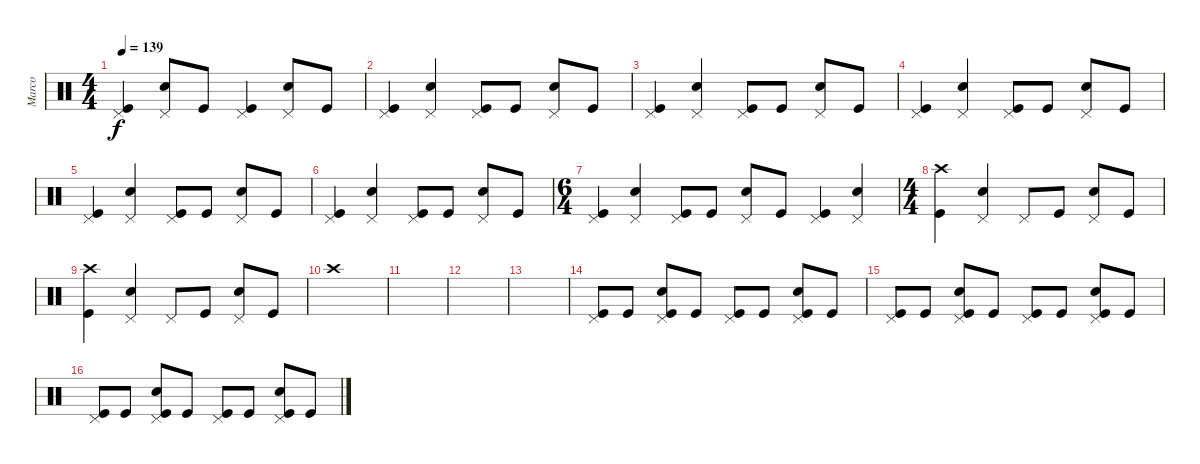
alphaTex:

\track ("Marco" "Marco") {instrument percussion}
\staff {score}
\articulation defaults
\ts (4 4)
\tempo 139
\clef neutral
\ks c
("Pedal Hi-Hat (hit)" "Kick (hit)").4{dy f} ("Pedal Hi-Hat (hit)" "Snare (hit) 2").8 "Kick (hit)".8 ("Pedal Hi-Hat (hit)" "Kick (hit)").4 ("Pedal Hi-Hat (hit)" "Snare (hit) 2").8 "Kick (hit)".8 |
("Pedal Hi-Hat (hit)" "Kick (hit)").4 ("Pedal Hi-Hat (hit)" "Snare (hit) 2").4 ("Pedal Hi-Hat (hit)" "Kick (hit)").8 "Kick (hit)".8 ("Pedal Hi-Hat (hit)" "Snare (hit) 2").8 "Kick (hit)".8 |
("Pedal Hi-Hat (hit)" "Kick (hit)").4 ("Pedal Hi-Hat (hit)" "Snare (hit) 2").4 ("Pedal Hi-Hat (hit)" "Kick (hit)").8 "Kick (hit)".8 ("Pedal Hi-Hat (hit)" "Snare (hit) 2").8 "Kick (hit)".8 |
("Pedal Hi-Hat (hit)" "Kick (hit)").4 ("Pedal Hi-Hat (hit)" "Snare (hit) 2").4 ("Pedal Hi-Hat (hit)" "Kick (hit)").8 "Kick (hit)".8 ("Pedal Hi-Hat (hit)" "Snare (hit) 2").8 "Kick (hit)".8 |
("Pedal Hi-Hat (hit)" "Kick (hit)").4 ("Pedal Hi-Hat (hit)" "Snare (hit) 2").4 ("Pedal Hi-Hat (hit)" "Kick (hit)").8 "Kick (hit)".8 ("Pedal Hi-Hat (hit)" "Snare (hit) 2").8 "Kick (hit)".8 |
("Pedal Hi-Hat (hit)" "Kick (hit)").4 ("Pedal Hi-Hat (hit)" "Snare (hit) 2").4 ("Pedal Hi-Hat (hit)" "Kick (hit)").8 "Kick (hit)".8 ("Pedal Hi-Hat (hit)" "Snare (hit) 2").8 "Kick (hit)".8 |
\ts (6 4)
("Pedal Hi-Hat (hit)" "Kick (hit)").4 ("Pedal Hi-Hat (hit)" "Snare (hit) 2").4 ("Pedal Hi-Hat (hit)" "Kick (hit)").8 "Kick (hit)".8 ("Pedal Hi-Hat (hit)" "Snare (hit) 2").8 "Kick (hit)".8 ("Pedal Hi-Hat (hit)" "Kick (hit)").4 ("Pedal Hi-Hat (hit)" "Snare (hit) 2").4 |
\ts (4 4)
("Crash high (hit)" "Kick (hit)").4 ("Pedal Hi-Hat (hit)" "Snare (hit) 2").4 "Pedal Hi-Hat (hit)".8 "Kick (hit)".8 ("Pedal Hi-Hat (hit)" "Snare (hit) 2").8 "Kick (hit)".8 |
("Crash high (hit)" "Kick (hit)").4 ("Pedal Hi-Hat (hit)" "Snare (hit) 2").4 "Pedal Hi-Hat (hit)".8 "Kick (hit)".8 ("Pedal Hi-Hat (hit)" "Snare (hit) 2").8 "Kick (hit)".8 |
"Crash high (hit)".1 |
|
|
|
("Pedal Hi-Hat (hit)" "Kick (hit)").8 "Kick (hit)".8 ("Pedal Hi-Hat (hit)" "Snare (hit) 2" "Kick (hit)").8 "Kick (hit)".8 ("Pedal Hi-Hat (hit)" "Kick (hit)").8 "Kick (hit)".8 ("Pedal Hi-Hat (hit)" "Snare (hit) 2" "Kick (hit)").8 "Kick (hit)".8 |
("Pedal Hi-Hat (hit)" "Kick (hit)").8 "Kick (hit)".8 ("Pedal Hi-Hat (hit)" "Snare (hit) 2" "Kick (hit)").8 "Kick (hit)".8 ("Pedal Hi-Hat (hit)" "Kick (hit)").8 "Kick (hit)".8 ("Pedal Hi-Hat (hit)" "Snare (hit) 2" "Kick (hit)").8 "Kick (hit)".8 |
("Pedal Hi-Hat (hit)" "Kick (hit)").8 "Kick (hit)".8 ("Pedal Hi-Hat (hit)" "Snare (hit) 2" "Kick (hit)").8 "Kick (hit)".8 ("Pedal Hi-Hat (hit)" "Kick (hit)").8 "Kick (hit)".8 ("Pedal Hi-Hat (hit)" "Snare (hit) 2" "Kick (hit)").8 "Kick (hit)".8
